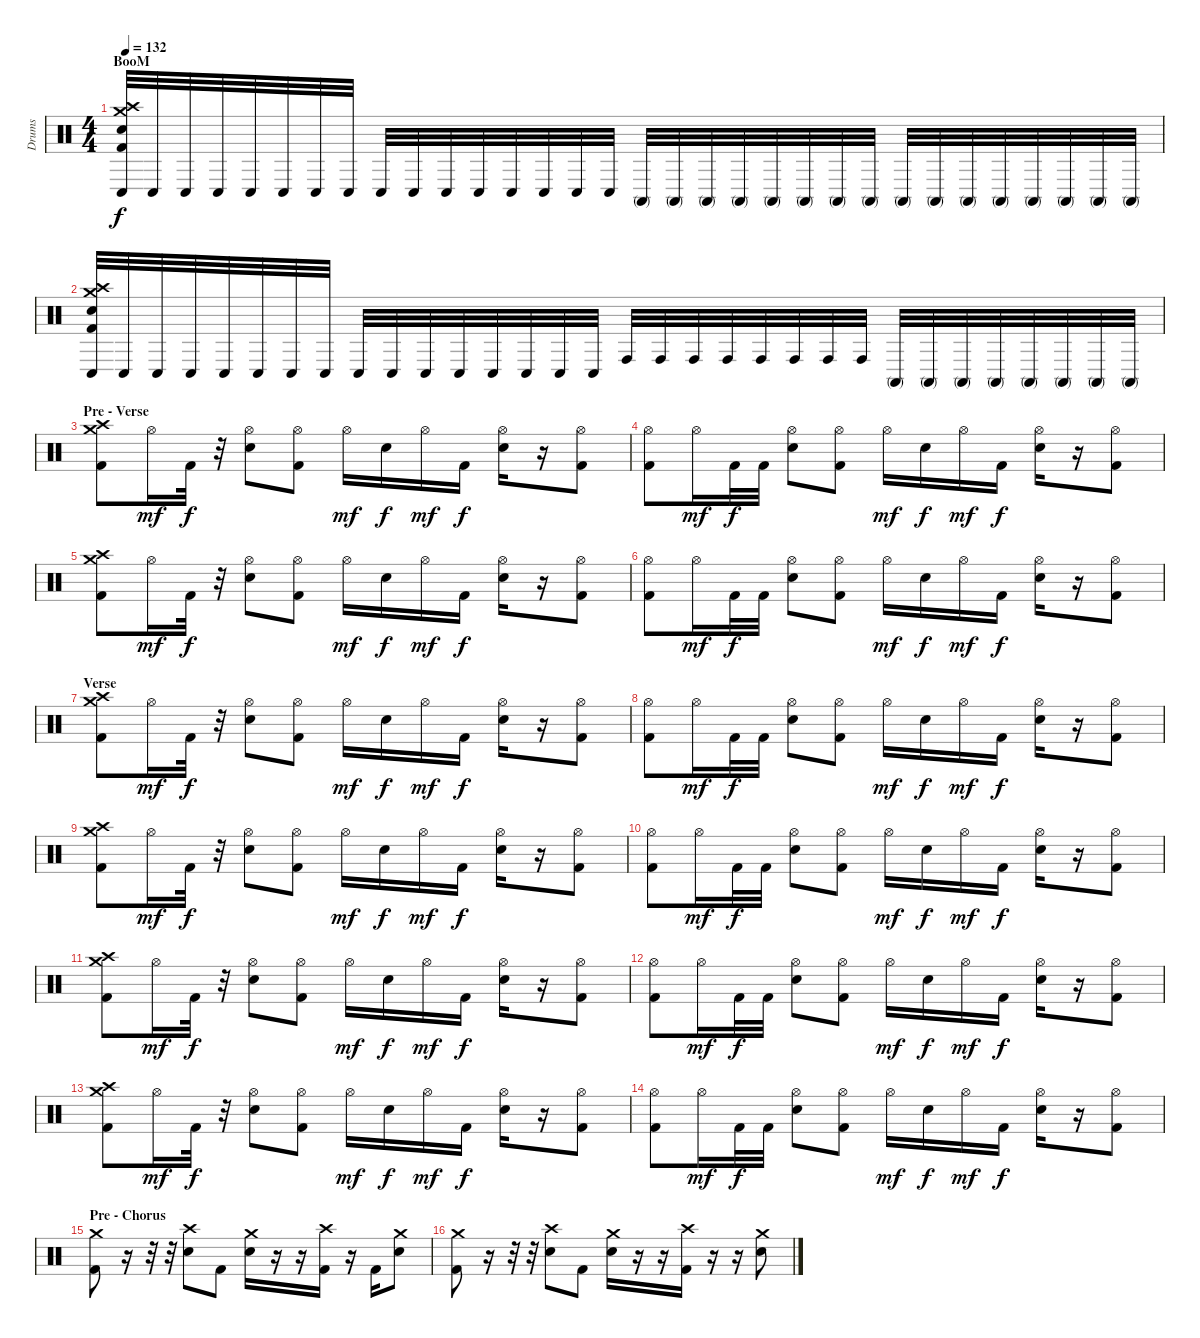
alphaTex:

\track ("Drums" "Drums") {instrument percussion}
\staff {score}
\articulation defaults
\ts (4 4)
\section ("" "BooM")
\tempo 132
\clef neutral
\ks c
("Crash medium (hit)" "Crash high (hit)" "Snare (hit) 2" "Conga low (hit)" "Kick (hit) 2").32{dy f} "Conga low (hit)".32 "Conga low (hit)".32 "Conga low (hit)".32 "Conga low (hit)".32 "Conga low (hit)".32 "Conga low (hit)".32 "Conga low (hit)".32 "Conga low (hit)".32 "Conga low (hit)".32 "Conga low (hit)".32 "Conga low (hit)".32 "Conga low (hit)".32 "Conga low (hit)".32 "Conga low (hit)".32 "Conga low (hit)".32 "Conga high (mute)".32 "Conga high (mute)".32 "Conga high (mute)".32 "Conga high (mute)".32 "Conga high (mute)".32 "Conga high (mute)".32 "Conga high (mute)".32 "Conga high (mute)".32 "Conga high (mute)".32 "Conga high (mute)".32 "Conga high (mute)".32 "Conga high (mute)".32 "Conga high (mute)".32 "Conga high (mute)".32 "Conga high (mute)".32 "Conga high (mute)".32 |
("Crash medium (hit)" "Crash high (hit)" "Snare (hit) 2" "Conga low (hit)" "Kick (hit) 2").32 "Conga low (hit)".32 "Conga low (hit)".32 "Conga low (hit)".32 "Conga low (hit)".32 "Conga low (hit)".32 "Conga low (hit)".32 "Conga low (hit)".32 "Conga low (hit)".32 "Conga low (hit)".32 "Conga low (hit)".32 "Conga low (hit)".32 "Conga low (hit)".32 "Conga low (hit)".32 "Conga low (hit)".32 "Conga low (hit)".32 "Conga high (hit)".32 "Conga high (hit)".32 "Conga high (hit)".32 "Conga high (hit)".32 "Conga high (hit)".32 "Conga high (hit)".32 "Conga high (hit)".32 "Conga high (hit)".32 "Conga high (mute)".32 "Conga high (mute)".32 "Conga high (mute)".32 "Conga high (mute)".32 "Conga high (mute)".32 "Conga high (mute)".32 "Conga high (mute)".32 "Conga high (mute)".32 |
\section ("" "Pre - Verse")
("Crash high (hit)" "Crash medium (hit)" "Kick (hit) 2").8 "Hi-Hat (open)".16{dy mf} "Kick (hit) 2".32{dy f} r.32 ("Hi-Hat (open)" "Snare (hit) 2").8 ("Hi-Hat (open)" "Kick (hit) 2").8 "Hi-Hat (open)".16{dy mf} "Snare (hit) 2".16{dy f} "Hi-Hat (open)".16{dy mf} "Kick (hit) 2".16{dy f} ("Hi-Hat (open)" "Snare (hit) 2").16 r.16 ("Hi-Hat (open)" "Kick (hit) 2").8 |
("Hi-Hat (open)" "Kick (hit) 2").8 "Hi-Hat (open)".16{dy mf} "Kick (hit) 2".32{dy f} "Kick (hit) 2".32 ("Hi-Hat (open)" "Snare (hit) 2").8 ("Hi-Hat (open)" "Kick (hit) 2").8 "Hi-Hat (open)".16{dy mf} "Snare (hit) 2".16{dy f} "Hi-Hat (open)".16{dy mf} "Kick (hit) 2".16{dy f} ("Hi-Hat (open)" "Snare (hit) 2").16 r.16 ("Hi-Hat (open)" "Kick (hit) 2").8 |
("Crash high (hit)" "Crash medium (hit)" "Kick (hit) 2").8 "Hi-Hat (open)".16{dy mf} "Kick (hit) 2".32{dy f} r.32 ("Hi-Hat (open)" "Snare (hit) 2").8 ("Hi-Hat (open)" "Kick (hit) 2").8 "Hi-Hat (open)".16{dy mf} "Snare (hit) 2".16{dy f} "Hi-Hat (open)".16{dy mf} "Kick (hit) 2".16{dy f} ("Hi-Hat (open)" "Snare (hit) 2").16 r.16 ("Hi-Hat (open)" "Kick (hit) 2").8 |
("Hi-Hat (open)" "Kick (hit) 2").8 "Hi-Hat (open)".16{dy mf} "Kick (hit) 2".32{dy f} "Kick (hit) 2".32 ("Hi-Hat (open)" "Snare (hit) 2").8 ("Hi-Hat (open)" "Kick (hit) 2").8 "Hi-Hat (open)".16{dy mf} "Snare (hit) 2".16{dy f} "Hi-Hat (open)".16{dy mf} "Kick (hit) 2".16{dy f} ("Hi-Hat (open)" "Snare (hit) 2").16 r.16 ("Hi-Hat (open)" "Kick (hit) 2").8 |
\section ("" "Verse")
("Crash high (hit)" "Crash medium (hit)" "Kick (hit) 2").8 "Hi-Hat (open)".16{dy mf} "Kick (hit) 2".32{dy f} r.32 ("Hi-Hat (open)" "Snare (hit) 2").8 ("Hi-Hat (open)" "Kick (hit) 2").8 "Hi-Hat (open)".16{dy mf} "Snare (hit) 2".16{dy f} "Hi-Hat (open)".16{dy mf} "Kick (hit) 2".16{dy f} ("Hi-Hat (open)" "Snare (hit) 2").16 r.16 ("Hi-Hat (open)" "Kick (hit) 2").8 |
("Hi-Hat (open)" "Kick (hit) 2").8 "Hi-Hat (open)".16{dy mf} "Kick (hit) 2".32{dy f} "Kick (hit) 2".32 ("Hi-Hat (open)" "Snare (hit) 2").8 ("Hi-Hat (open)" "Kick (hit) 2").8 "Hi-Hat (open)".16{dy mf} "Snare (hit) 2".16{dy f} "Hi-Hat (open)".16{dy mf} "Kick (hit) 2".16{dy f} ("Hi-Hat (open)" "Snare (hit) 2").16 r.16 ("Hi-Hat (open)" "Kick (hit) 2").8 |
("Crash high (hit)" "Crash medium (hit)" "Kick (hit) 2").8 "Hi-Hat (open)".16{dy mf} "Kick (hit) 2".32{dy f} r.32 ("Hi-Hat (open)" "Snare (hit) 2").8 ("Hi-Hat (open)" "Kick (hit) 2").8 "Hi-Hat (open)".16{dy mf} "Snare (hit) 2".16{dy f} "Hi-Hat (open)".16{dy mf} "Kick (hit) 2".16{dy f} ("Hi-Hat (open)" "Snare (hit) 2").16 r.16 ("Hi-Hat (open)" "Kick (hit) 2").8 |
("Hi-Hat (open)" "Kick (hit) 2").8 "Hi-Hat (open)".16{dy mf} "Kick (hit) 2".32{dy f} "Kick (hit) 2".32 ("Hi-Hat (open)" "Snare (hit) 2").8 ("Hi-Hat (open)" "Kick (hit) 2").8 "Hi-Hat (open)".16{dy mf} "Snare (hit) 2".16{dy f} "Hi-Hat (open)".16{dy mf} "Kick (hit) 2".16{dy f} ("Hi-Hat (open)" "Snare (hit) 2").16 r.16 ("Hi-Hat (open)" "Kick (hit) 2").8 |
("Crash high (hit)" "Crash medium (hit)" "Kick (hit) 2").8 "Hi-Hat (open)".16{dy mf} "Kick (hit) 2".32{dy f} r.32 ("Hi-Hat (open)" "Snare (hit) 2").8 ("Hi-Hat (open)" "Kick (hit) 2").8 "Hi-Hat (open)".16{dy mf} "Snare (hit) 2".16{dy f} "Hi-Hat (open)".16{dy mf} "Kick (hit) 2".16{dy f} ("Hi-Hat (open)" "Snare (hit) 2").16 r.16 ("Hi-Hat (open)" "Kick (hit) 2").8 |
("Hi-Hat (open)" "Kick (hit) 2").8 "Hi-Hat (open)".16{dy mf} "Kick (hit) 2".32{dy f} "Kick (hit) 2".32 ("Hi-Hat (open)" "Snare (hit) 2").8 ("Hi-Hat (open)" "Kick (hit) 2").8 "Hi-Hat (open)".16{dy mf} "Snare (hit) 2".16{dy f} "Hi-Hat (open)".16{dy mf} "Kick (hit) 2".16{dy f} ("Hi-Hat (open)" "Snare (hit) 2").16 r.16 ("Hi-Hat (open)" "Kick (hit) 2").8 |
("Crash high (hit)" "Crash medium (hit)" "Kick (hit) 2").8 "Hi-Hat (open)".16{dy mf} "Kick (hit) 2".32{dy f} r.32 ("Hi-Hat (open)" "Snare (hit) 2").8 ("Hi-Hat (open)" "Kick (hit) 2").8 "Hi-Hat (open)".16{dy mf} "Snare (hit) 2".16{dy f} "Hi-Hat (open)".16{dy mf} "Kick (hit) 2".16{dy f} ("Hi-Hat (open)" "Snare (hit) 2").16 r.16 ("Hi-Hat (open)" "Kick (hit) 2").8 |
("Hi-Hat (open)" "Kick (hit) 2").8 "Hi-Hat (open)".16{dy mf} "Kick (hit) 2".32{dy f} "Kick (hit) 2".32 ("Hi-Hat (open)" "Snare (hit) 2").8 ("Hi-Hat (open)" "Kick (hit) 2").8 "Hi-Hat (open)".16{dy mf} "Snare (hit) 2".16{dy f} "Hi-Hat (open)".16{dy mf} "Kick (hit) 2".16{dy f} ("Hi-Hat (open)" "Snare (hit) 2").16 r.16 ("Hi-Hat (open)" "Kick (hit) 2").8 |
\section ("" "Pre - Chorus")
("Crash medium (hit)" "Kick (hit) 2").8 r.16 r.32 r.32 ("Crash high (hit)" "Snare (hit) 2").8 "Kick (hit) 2".8 ("Crash medium (hit)" "Snare (hit) 2").16 r.16 r.16 ("Crash high (hit)" "Kick (hit) 2").16 r.16 "Kick (hit) 2".16 ("Crash medium (hit)" "Snare (hit) 2").8 |
("Crash medium (hit)" "Kick (hit) 2").8 r.16 r.32 r.32 ("Crash high (hit)" "Snare (hit) 2").8 "Kick (hit) 2".8 ("Crash medium (hit)" "Snare (hit) 2").16 r.16 r.16 ("Crash high (hit)" "Kick (hit) 2").16 r.16 r.16 ("Crash medium (hit)" "Snare (hit) 2").8
